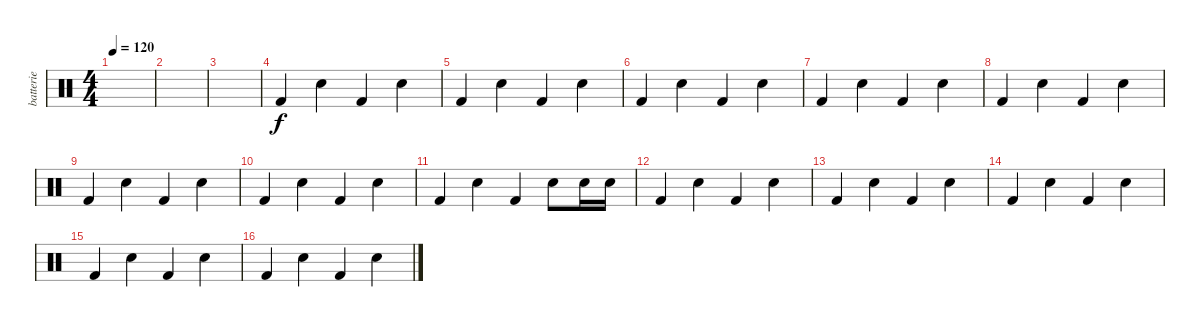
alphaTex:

\track ("batterie" "batterie") {instrument percussion}
\staff {score}
\articulation defaults
\ts (4 4)
\tempo 120
\clef neutral
\ks c
|
|
|
"Kick (hit) 2".4{dy f} "Electric Snare (hit)".4 "Kick (hit) 2".4 "Electric Snare (hit)".4 |
"Kick (hit) 2".4 "Electric Snare (hit)".4 "Kick (hit) 2".4 "Electric Snare (hit)".4 |
"Kick (hit) 2".4 "Electric Snare (hit)".4 "Kick (hit) 2".4 "Electric Snare (hit)".4 |
"Kick (hit) 2".4 "Electric Snare (hit)".4 "Kick (hit) 2".4 "Electric Snare (hit)".4 |
"Kick (hit) 2".4 "Electric Snare (hit)".4 "Kick (hit) 2".4 "Electric Snare (hit)".4 |
"Kick (hit) 2".4 "Electric Snare (hit)".4 "Kick (hit) 2".4 "Electric Snare (hit)".4 |
"Kick (hit) 2".4 "Electric Snare (hit)".4 "Kick (hit) 2".4 "Electric Snare (hit)".4 |
"Kick (hit) 2".4 "Electric Snare (hit)".4 "Kick (hit) 2".4 "Electric Snare (hit)".8 "Electric Snare (hit)".16 "Electric Snare (hit)".16 |
"Kick (hit) 2".4 "Electric Snare (hit)".4 "Kick (hit) 2".4 "Electric Snare (hit)".4 |
"Kick (hit) 2".4 "Electric Snare (hit)".4 "Kick (hit) 2".4 "Electric Snare (hit)".4 |
"Kick (hit) 2".4 "Electric Snare (hit)".4 "Kick (hit) 2".4 "Electric Snare (hit)".4 |
"Kick (hit) 2".4 "Electric Snare (hit)".4 "Kick (hit) 2".4 "Electric Snare (hit)".4 |
"Kick (hit) 2".4 "Electric Snare (hit)".4 "Kick (hit) 2".4 "Electric Snare (hit)".4
